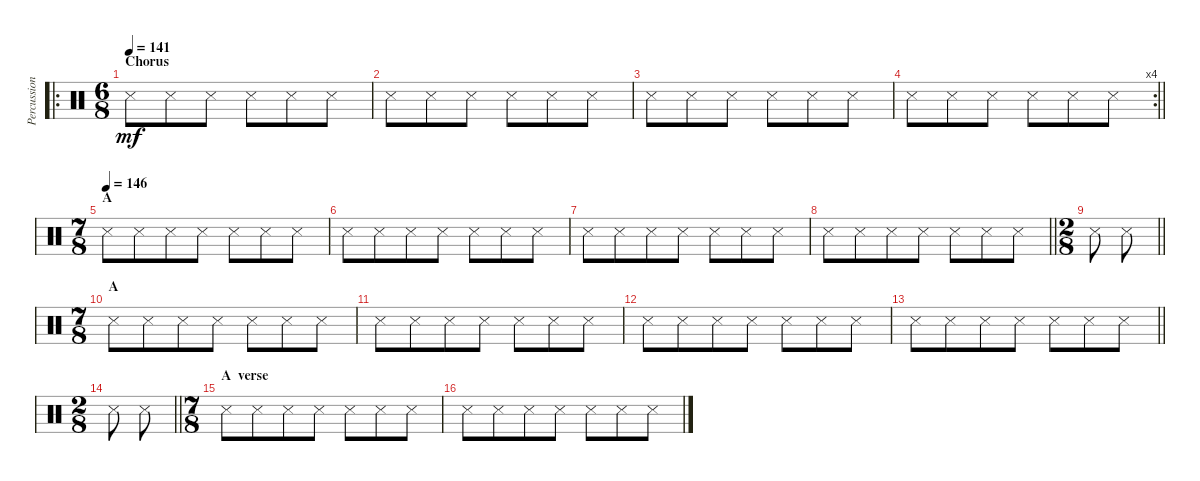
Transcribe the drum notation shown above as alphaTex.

\track ("Percussion" "Percussion") {instrument percussion}
\staff {score}
\articulation defaults
\ro
\ts (6 8)
\section ("" "Chorus")
\tempo 141
\clef neutral
\ks c "Metronome (hit)".8{dy mf} "Metronome (hit)".8 "Metronome (hit)".8 "Metronome (hit)".8 "Metronome (hit)".8 "Metronome (hit)".8
|
"Metronome (hit)".8 "Metronome (hit)".8 "Metronome (hit)".8 "Metronome (hit)".8 "Metronome (hit)".8 "Metronome (hit)".8 |
"Metronome (hit)".8 "Metronome (hit)".8 "Metronome (hit)".8 "Metronome (hit)".8 "Metronome (hit)".8 "Metronome (hit)".8 |
\rc 4
\barLineRight lightlight "Metronome (hit)".8 "Metronome (hit)".8 "Metronome (hit)".8 "Metronome (hit)".8 "Metronome (hit)".8 "Metronome (hit)".8
|
\ts (7 8)
\section ("" "A")
\tempo (146)
"Metronome (hit)".8 "Metronome (hit)".8 "Metronome (hit)".8 "Metronome (hit)".8 "Metronome (hit)".8 "Metronome (hit)".8 "Metronome (hit)".8 |
"Metronome (hit)".8 "Metronome (hit)".8 "Metronome (hit)".8 "Metronome (hit)".8 "Metronome (hit)".8 "Metronome (hit)".8 "Metronome (hit)".8 |
"Metronome (hit)".8 "Metronome (hit)".8 "Metronome (hit)".8 "Metronome (hit)".8 "Metronome (hit)".8 "Metronome (hit)".8 "Metronome (hit)".8 |
\barLineRight lightlight "Metronome (hit)".8 "Metronome (hit)".8 "Metronome (hit)".8 "Metronome (hit)".8 "Metronome (hit)".8 "Metronome (hit)".8 "Metronome (hit)".8
|
\ts (2 8)
\barLineRight lightlight "Metronome (hit)".8 "Metronome (hit)".8
|
\ts (7 8)
\section ("" "A")
"Metronome (hit)".8 "Metronome (hit)".8 "Metronome (hit)".8 "Metronome (hit)".8 "Metronome (hit)".8 "Metronome (hit)".8 "Metronome (hit)".8 |
"Metronome (hit)".8 "Metronome (hit)".8 "Metronome (hit)".8 "Metronome (hit)".8 "Metronome (hit)".8 "Metronome (hit)".8 "Metronome (hit)".8 |
"Metronome (hit)".8 "Metronome (hit)".8 "Metronome (hit)".8 "Metronome (hit)".8 "Metronome (hit)".8 "Metronome (hit)".8 "Metronome (hit)".8 |
\barLineRight lightlight "Metronome (hit)".8 "Metronome (hit)".8 "Metronome (hit)".8 "Metronome (hit)".8 "Metronome (hit)".8 "Metronome (hit)".8 "Metronome (hit)".8
|
\ts (2 8)
\barLineRight lightlight "Metronome (hit)".8 "Metronome (hit)".8
|
\ts (7 8)
\section ("" "A  verse")
"Metronome (hit)".8 "Metronome (hit)".8 "Metronome (hit)".8 "Metronome (hit)".8 "Metronome (hit)".8 "Metronome (hit)".8 "Metronome (hit)".8 |
"Metronome (hit)".8 "Metronome (hit)".8 "Metronome (hit)".8 "Metronome (hit)".8 "Metronome (hit)".8 "Metronome (hit)".8 "Metronome (hit)".8
